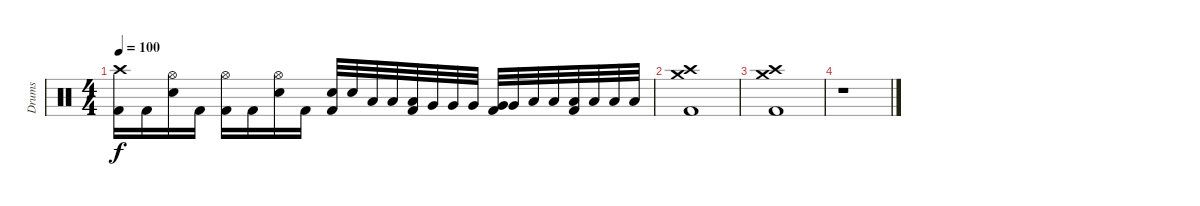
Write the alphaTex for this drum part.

\track ("Drums" "Drums") {instrument percussion}
\staff {score}
\articulation defaults
\ts (4 4)
\tempo 100
\clef neutral
\ks c
("Kick (hit) 2" "Crash high (hit)").16{dy f} "Kick (hit) 2".16 ("Electric Snare (hit)" "Hi-Hat (open)").16 "Kick (hit) 2".16 ("Kick (hit) 2" "Hi-Hat (open)").16 "Kick (hit) 2".16 ("Electric Snare (hit)" "Hi-Hat (open)").16 "Kick (hit) 2".16 ("Electric Snare (hit)" "Kick (hit) 2").32 "Electric Snare (hit)".32 "Low Tom (hit)".32 "Low Tom (hit)".32 ("Low Tom (hit)" "Kick (hit) 2").32 "Very Low Tom (hit)".32 "Very Low Tom (hit)".32 "Very Low Tom (hit)".32 ("Very Low Tom (hit)" "Kick (hit) 2").32 "Very Low Tom (hit)".32 "Low Floor Tom (hit)".32 "Low Floor Tom (hit)".32 ("Low Floor Tom (hit)" "Kick (hit) 2").32 "Low Floor Tom (hit)".32 "Low Floor Tom (hit)".32 "Low Floor Tom (hit)".32 |
("Kick (hit) 2" "Crash high (hit)" "Crash medium (hit)").1 |
("Kick (hit) 2" "Crash high (hit)" "Crash medium (hit)").1 |
r.1
